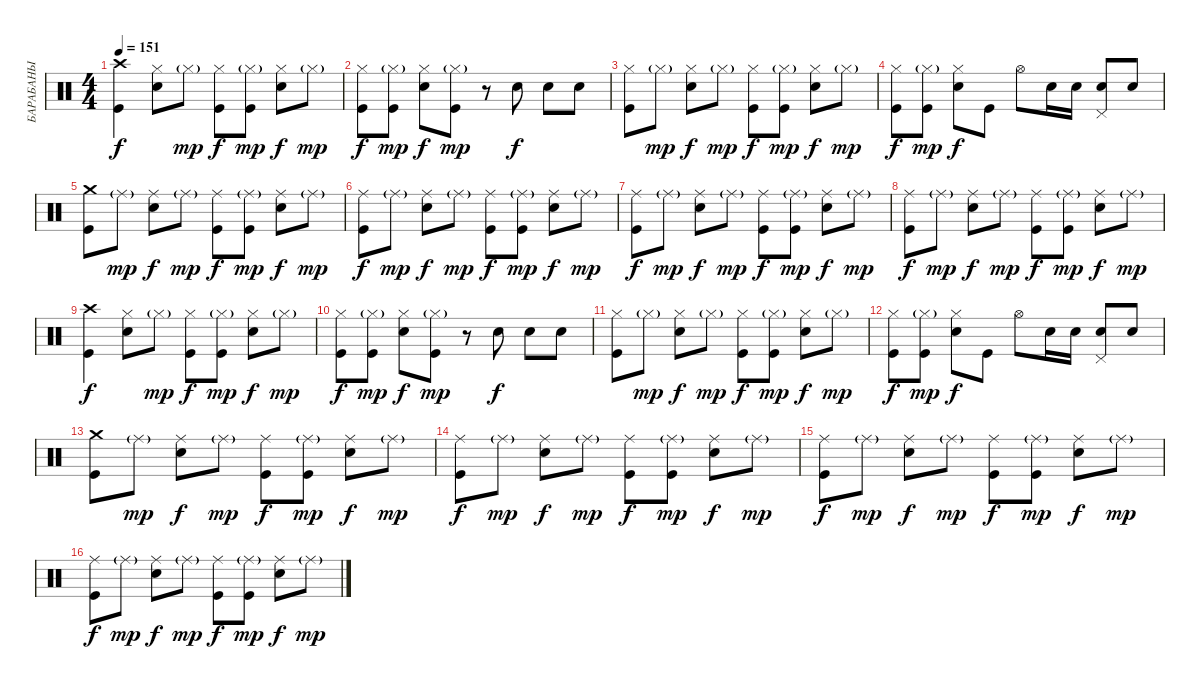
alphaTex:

\track ("БАРАБАНЫ" "БАРАБАНЫ") {instrument percussion}
\staff {score}
\articulation defaults
\ts (4 4)
\tempo 151
\clef neutral
\ks c
("Crash high (hit)" "Kick (hit)").4{dy f} ("Hi-Hat (closed)" "Electric Snare (hit)").8 "Hi-Hat (closed)"{g}.8{dy mp} ("Hi-Hat (closed)" "Kick (hit)").8{dy f} ("Hi-Hat (closed)"{g} "Kick (hit)").8{dy mp} ("Hi-Hat (closed)" "Electric Snare (hit)").8{dy f} "Hi-Hat (closed)"{g}.8{dy mp} |
("Hi-Hat (closed)" "Kick (hit)").8{dy f} ("Hi-Hat (closed)"{g} "Kick (hit)").8{dy mp} ("Hi-Hat (closed)" "Electric Snare (hit)").8{dy f} ("Hi-Hat (closed)"{g} "Kick (hit)").8{dy mp} r.8 "Electric Snare (hit)".8{dy f} "Electric Snare (hit)".8 "Electric Snare (hit)".8 |
("Hi-Hat (closed)" "Kick (hit)").8 "Hi-Hat (closed)"{g}.8{dy mp} ("Hi-Hat (closed)" "Electric Snare (hit)").8{dy f} "Hi-Hat (closed)"{g}.8{dy mp} ("Hi-Hat (closed)" "Kick (hit)").8{dy f} ("Hi-Hat (closed)"{g} "Kick (hit)").8{dy mp} ("Hi-Hat (closed)" "Electric Snare (hit)").8{dy f} "Hi-Hat (closed)"{g}.8{dy mp} |
("Hi-Hat (closed)" "Kick (hit)").8{dy f} ("Hi-Hat (closed)"{g} "Kick (hit)").8{dy mp} ("Hi-Hat (closed)" "Electric Snare (hit)").8{dy f} "Kick (hit)".8 "Hi-Hat (open)".8 "Electric Snare (hit)".16 "Electric Snare (hit)".16 ("Pedal Hi-Hat (hit)" "Electric Snare (hit)").8 "Electric Snare (hit)".8 |
("Crash medium (hit)" "Kick (hit)").8 "Ride (middle)"{g}.8{dy mp} ("Ride (middle)" "Electric Snare (hit)").8{dy f} "Ride (middle)"{g}.8{dy mp} ("Ride (middle)" "Kick (hit)").8{dy f} ("Ride (middle)"{g} "Kick (hit)").8{dy mp} ("Ride (middle)" "Electric Snare (hit)").8{dy f} "Ride (middle)"{g}.8{dy mp} |
("Ride (middle)" "Kick (hit)").8{dy f} "Ride (middle)"{g}.8{dy mp} ("Ride (middle)" "Electric Snare (hit)").8{dy f} "Ride (middle)"{g}.8{dy mp} ("Ride (middle)" "Kick (hit)").8{dy f} ("Ride (middle)"{g} "Kick (hit)").8{dy mp} ("Ride (middle)" "Electric Snare (hit)").8{dy f} "Ride (middle)"{g}.8{dy mp} |
("Ride (middle)" "Kick (hit)").8{dy f} "Ride (middle)"{g}.8{dy mp} ("Ride (middle)" "Electric Snare (hit)").8{dy f} "Ride (middle)"{g}.8{dy mp} ("Ride (middle)" "Kick (hit)").8{dy f} ("Ride (middle)"{g} "Kick (hit)").8{dy mp} ("Ride (middle)" "Electric Snare (hit)").8{dy f} "Ride (middle)"{g}.8{dy mp} |
("Ride (middle)" "Kick (hit)").8{dy f} "Ride (middle)"{g}.8{dy mp} ("Ride (middle)" "Electric Snare (hit)").8{dy f} "Ride (middle)"{g}.8{dy mp} ("Ride (middle)" "Kick (hit)").8{dy f} ("Ride (middle)"{g} "Kick (hit)").8{dy mp} ("Ride (middle)" "Electric Snare (hit)").8{dy f} "Ride (middle)"{g}.8{dy mp} |
("Crash high (hit)" "Kick (hit)").4{dy f} ("Hi-Hat (closed)" "Electric Snare (hit)").8 "Hi-Hat (closed)"{g}.8{dy mp} ("Hi-Hat (closed)" "Kick (hit)").8{dy f} ("Hi-Hat (closed)"{g} "Kick (hit)").8{dy mp} ("Hi-Hat (closed)" "Electric Snare (hit)").8{dy f} "Hi-Hat (closed)"{g}.8{dy mp} |
("Hi-Hat (closed)" "Kick (hit)").8{dy f} ("Hi-Hat (closed)"{g} "Kick (hit)").8{dy mp} ("Hi-Hat (closed)" "Electric Snare (hit)").8{dy f} ("Hi-Hat (closed)"{g} "Kick (hit)").8{dy mp} r.8 "Electric Snare (hit)".8{dy f} "Electric Snare (hit)".8 "Electric Snare (hit)".8 |
("Hi-Hat (closed)" "Kick (hit)").8 "Hi-Hat (closed)"{g}.8{dy mp} ("Hi-Hat (closed)" "Electric Snare (hit)").8{dy f} "Hi-Hat (closed)"{g}.8{dy mp} ("Hi-Hat (closed)" "Kick (hit)").8{dy f} ("Hi-Hat (closed)"{g} "Kick (hit)").8{dy mp} ("Hi-Hat (closed)" "Electric Snare (hit)").8{dy f} "Hi-Hat (closed)"{g}.8{dy mp} |
("Hi-Hat (closed)" "Kick (hit)").8{dy f} ("Hi-Hat (closed)"{g} "Kick (hit)").8{dy mp} ("Hi-Hat (closed)" "Electric Snare (hit)").8{dy f} "Kick (hit)".8 "Hi-Hat (open)".8 "Electric Snare (hit)".16 "Electric Snare (hit)".16 ("Pedal Hi-Hat (hit)" "Electric Snare (hit)").8 "Electric Snare (hit)".8 |
("Crash medium (hit)" "Kick (hit)").8 "Ride (middle)"{g}.8{dy mp} ("Ride (middle)" "Electric Snare (hit)").8{dy f} "Ride (middle)"{g}.8{dy mp} ("Ride (middle)" "Kick (hit)").8{dy f} ("Ride (middle)"{g} "Kick (hit)").8{dy mp} ("Ride (middle)" "Electric Snare (hit)").8{dy f} "Ride (middle)"{g}.8{dy mp} |
("Ride (middle)" "Kick (hit)").8{dy f} "Ride (middle)"{g}.8{dy mp} ("Ride (middle)" "Electric Snare (hit)").8{dy f} "Ride (middle)"{g}.8{dy mp} ("Ride (middle)" "Kick (hit)").8{dy f} ("Ride (middle)"{g} "Kick (hit)").8{dy mp} ("Ride (middle)" "Electric Snare (hit)").8{dy f} "Ride (middle)"{g}.8{dy mp} |
("Ride (middle)" "Kick (hit)").8{dy f} "Ride (middle)"{g}.8{dy mp} ("Ride (middle)" "Electric Snare (hit)").8{dy f} "Ride (middle)"{g}.8{dy mp} ("Ride (middle)" "Kick (hit)").8{dy f} ("Ride (middle)"{g} "Kick (hit)").8{dy mp} ("Ride (middle)" "Electric Snare (hit)").8{dy f} "Ride (middle)"{g}.8{dy mp} |
("Ride (middle)" "Kick (hit)").8{dy f} "Ride (middle)"{g}.8{dy mp} ("Ride (middle)" "Electric Snare (hit)").8{dy f} "Ride (middle)"{g}.8{dy mp} ("Ride (middle)" "Kick (hit)").8{dy f} ("Ride (middle)"{g} "Kick (hit)").8{dy mp} ("Ride (middle)" "Electric Snare (hit)").8{dy f} "Ride (middle)"{g}.8{dy mp}
